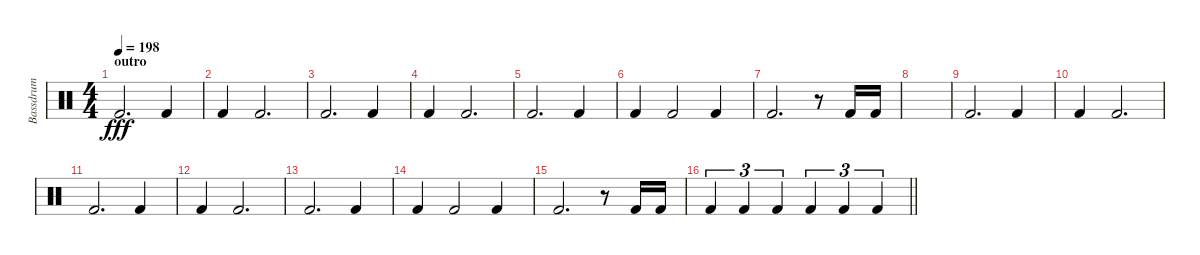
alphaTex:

\track ("Bassdrum" "Bassdrum") {instrument percussion}
\staff {score}
\articulation defaults
\ts (4 4)
\section ("" "outro")
\tempo 198
\clef neutral
\ks c "Kick (hit) 2".2{d dy fff} "Kick (hit) 2".4
|
"Kick (hit) 2".4 "Kick (hit) 2".2{d} |
"Kick (hit) 2".2{d} "Kick (hit) 2".4 |
"Kick (hit) 2".4 "Kick (hit) 2".2{d} |
"Kick (hit) 2".2{d} "Kick (hit) 2".4 |
"Kick (hit) 2".4 "Kick (hit) 2".2 "Kick (hit) 2".4 |
"Kick (hit) 2".2{d} r.8 "Kick (hit) 2".16 "Kick (hit) 2".16 |
|
"Kick (hit) 2".2{d} "Kick (hit) 2".4 |
"Kick (hit) 2".4 "Kick (hit) 2".2{d} |
"Kick (hit) 2".2{d} "Kick (hit) 2".4 |
"Kick (hit) 2".4 "Kick (hit) 2".2{d} |
"Kick (hit) 2".2{d} "Kick (hit) 2".4 |
"Kick (hit) 2".4 "Kick (hit) 2".2 "Kick (hit) 2".4 |
"Kick (hit) 2".2{d} r.8 "Kick (hit) 2".16 "Kick (hit) 2".16 |
\barLineRight lightlight "Kick (hit) 2".4{tu (3 2)} "Kick (hit) 2".4{tu (3 2)} "Kick (hit) 2".4{tu (3 2)} "Kick (hit) 2".4{tu (3 2)} "Kick (hit) 2".4{tu (3 2)} "Kick (hit) 2".4{tu (3 2)}
